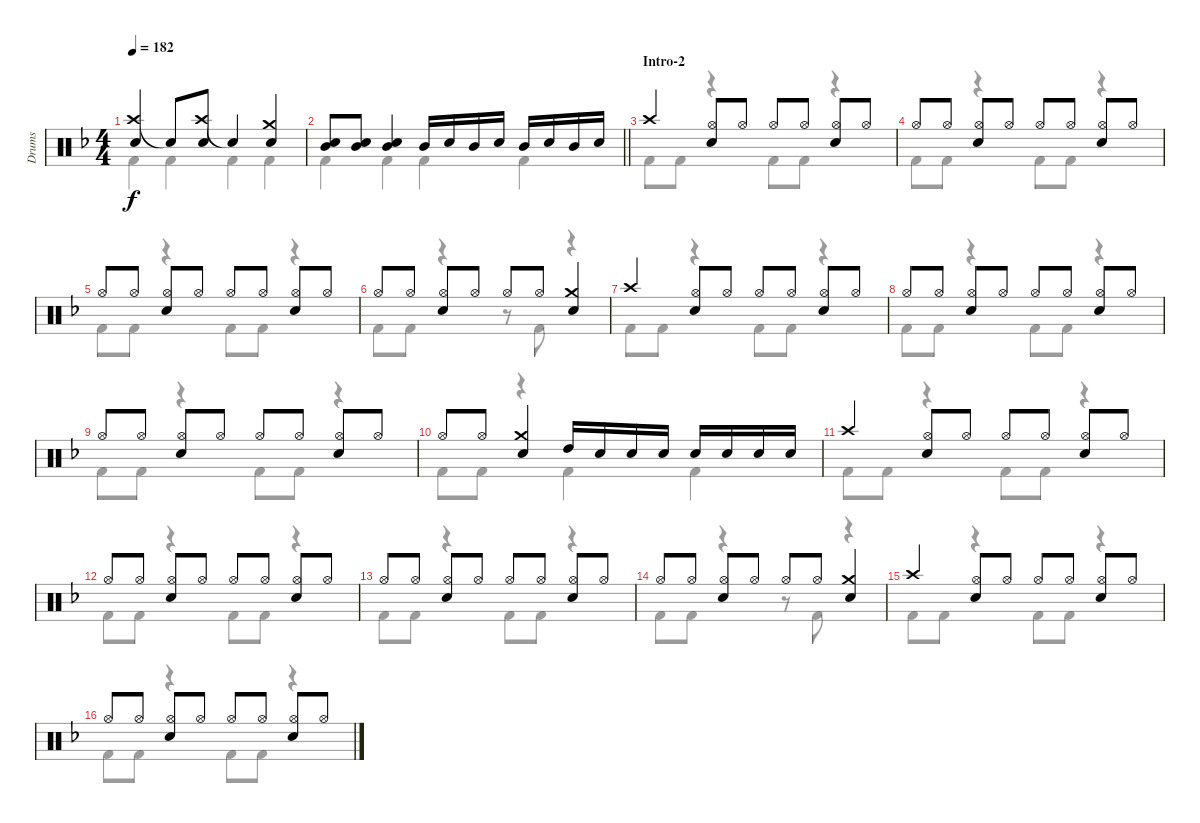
\track ("Drums" "Drums") {instrument percussion}
\staff {score}
\articulation defaults
\voice
\ts (4 4)
\tempo 182
\clef neutral
\ks f
("Crash high (hit)" "Snare (hit) 2").4{dy f} "Snare (hit)"{t}.8 ("Crash high (hit)" "Snare (hit) 2").8 "Snare (hit)"{t}.4 ("Crash medium (hit)" "Snare (hit) 2").4 |
\barLineRight lightlight
("Mid Tom (hit)" "Snare (hit) 2").8 ("Mid Tom (hit)" "Snare (hit) 2").8 ("Mid Tom (hit)" "Snare (hit) 2").4 "Mid Tom (hit)".16 "Snare (hit) 2".16 "Mid Tom (hit)".16 "Snare (hit) 2".16 "Mid Tom (hit)".16 "Snare (hit) 2".16 "Mid Tom (hit)".16 "Snare (hit) 2".16 |
\section ("" "Intro-2")
"Crash high (hit)".4 ("Hi-Hat (open)" "Snare (hit) 2").8 "Hi-Hat (open)".8 "Hi-Hat (open)".8 "Hi-Hat (open)".8 ("Hi-Hat (open)" "Snare (hit) 2").8 "Hi-Hat (open)".8 |
"Hi-Hat (open)".8 "Hi-Hat (open)".8 ("Hi-Hat (open)" "Snare (hit) 2").8 "Hi-Hat (open)".8 "Hi-Hat (open)".8 "Hi-Hat (open)".8 ("Hi-Hat (open)" "Snare (hit) 2").8 "Hi-Hat (open)".8 |
"Hi-Hat (open)".8 "Hi-Hat (open)".8 ("Hi-Hat (open)" "Snare (hit) 2").8 "Hi-Hat (open)".8 "Hi-Hat (open)".8 "Hi-Hat (open)".8 ("Hi-Hat (open)" "Snare (hit) 2").8 "Hi-Hat (open)".8 |
"Hi-Hat (open)".8 "Hi-Hat (open)".8 ("Hi-Hat (open)" "Snare (hit) 2").8 "Hi-Hat (open)".8 "Hi-Hat (open)".8 "Hi-Hat (open)".8 ("Crash medium (hit)" "Snare (hit) 2").4 |
"Crash high (hit)".4 ("Hi-Hat (open)" "Snare (hit) 2").8 "Hi-Hat (open)".8 "Hi-Hat (open)".8 "Hi-Hat (open)".8 ("Hi-Hat (open)" "Snare (hit) 2").8 "Hi-Hat (open)".8 |
"Hi-Hat (open)".8 "Hi-Hat (open)".8 ("Hi-Hat (open)" "Snare (hit) 2").8 "Hi-Hat (open)".8 "Hi-Hat (open)".8 "Hi-Hat (open)".8 ("Hi-Hat (open)" "Snare (hit) 2").8 "Hi-Hat (open)".8 |
"Hi-Hat (open)".8 "Hi-Hat (open)".8 ("Hi-Hat (open)" "Snare (hit) 2").8 "Hi-Hat (open)".8 "Hi-Hat (open)".8 "Hi-Hat (open)".8 ("Hi-Hat (open)" "Snare (hit) 2").8 "Hi-Hat (open)".8 |
"Hi-Hat (open)".8 "Hi-Hat (open)".8 ("Crash medium (hit)" "Snare (hit) 2").4 "High Tom (hit)".16 "Snare (hit) 2".16 "Snare (hit) 2".16 "Snare (hit) 2".16 "Snare (hit) 2".16 "Snare (hit) 2".16 "Snare (hit) 2".16 "Snare (hit) 2".16 |
"Crash high (hit)".4 ("Hi-Hat (open)" "Snare (hit) 2").8 "Hi-Hat (open)".8 "Hi-Hat (open)".8 "Hi-Hat (open)".8 ("Hi-Hat (open)" "Snare (hit) 2").8 "Hi-Hat (open)".8 |
"Hi-Hat (open)".8 "Hi-Hat (open)".8 ("Hi-Hat (open)" "Snare (hit) 2").8 "Hi-Hat (open)".8 "Hi-Hat (open)".8 "Hi-Hat (open)".8 ("Hi-Hat (open)" "Snare (hit) 2").8 "Hi-Hat (open)".8 |
"Hi-Hat (open)".8 "Hi-Hat (open)".8 ("Hi-Hat (open)" "Snare (hit) 2").8 "Hi-Hat (open)".8 "Hi-Hat (open)".8 "Hi-Hat (open)".8 ("Hi-Hat (open)" "Snare (hit) 2").8 "Hi-Hat (open)".8 |
"Hi-Hat (open)".8 "Hi-Hat (open)".8 ("Hi-Hat (open)" "Snare (hit) 2").8 "Hi-Hat (open)".8 "Hi-Hat (open)".8 "Hi-Hat (open)".8 ("Crash medium (hit)" "Snare (hit) 2").4 |
"Crash high (hit)".4 ("Hi-Hat (open)" "Snare (hit) 2").8 "Hi-Hat (open)".8 "Hi-Hat (open)".8 "Hi-Hat (open)".8 ("Hi-Hat (open)" "Snare (hit) 2").8 "Hi-Hat (open)".8 |
"Hi-Hat (open)".8 "Hi-Hat (open)".8 ("Hi-Hat (open)" "Snare (hit) 2").8 "Hi-Hat (open)".8 "Hi-Hat (open)".8 "Hi-Hat (open)".8 ("Hi-Hat (open)" "Snare (hit) 2").8 "Hi-Hat (open)".8
\voice
\clef neutral
\ottava regular
\simile none
\ks f "Kick (hit) 2".4{dy f} "Kick (hit) 2".4 "Kick (hit) 2".4 "Kick (hit) 2".4
|
\barLineRight lightlight "Kick (hit) 2".4 "Kick (hit) 2".4 "Kick (hit) 2".4 "Kick (hit) 2".4
|
"Kick (hit) 2".8 "Kick (hit) 2".8 r.4 "Kick (hit) 2".8 "Kick (hit) 2".8 r.4 |
"Kick (hit) 2".8 "Kick (hit) 2".8 r.4 "Kick (hit) 2".8 "Kick (hit) 2".8 r.4 |
"Kick (hit) 2".8 "Kick (hit) 2".8 r.4 "Kick (hit) 2".8 "Kick (hit) 2".8 r.4 |
"Kick (hit) 2".8 "Kick (hit) 2".8 r.4 r.8 "Kick (hit) 2".8 r.4 |
"Kick (hit) 2".8 "Kick (hit) 2".8 r.4 "Kick (hit) 2".8 "Kick (hit) 2".8 r.4 |
"Kick (hit) 2".8 "Kick (hit) 2".8 r.4 "Kick (hit) 2".8 "Kick (hit) 2".8 r.4 |
"Kick (hit) 2".8 "Kick (hit) 2".8 r.4 "Kick (hit) 2".8 "Kick (hit) 2".8 r.4 |
"Kick (hit) 2".8 "Kick (hit) 2".8 r.4 "Kick (hit) 2".4 "Kick (hit) 2".4 |
"Kick (hit) 2".8 "Kick (hit) 2".8 r.4 "Kick (hit) 2".8 "Kick (hit) 2".8 r.4 |
"Kick (hit) 2".8 "Kick (hit) 2".8 r.4 "Kick (hit) 2".8 "Kick (hit) 2".8 r.4 |
"Kick (hit) 2".8 "Kick (hit) 2".8 r.4 "Kick (hit) 2".8 "Kick (hit) 2".8 r.4 |
"Kick (hit) 2".8 "Kick (hit) 2".8 r.4 r.8 "Kick (hit) 2".8 r.4 |
"Kick (hit) 2".8 "Kick (hit) 2".8 r.4 "Kick (hit) 2".8 "Kick (hit) 2".8 r.4 |
"Kick (hit) 2".8 "Kick (hit) 2".8 r.4 "Kick (hit) 2".8 "Kick (hit) 2".8 r.4
